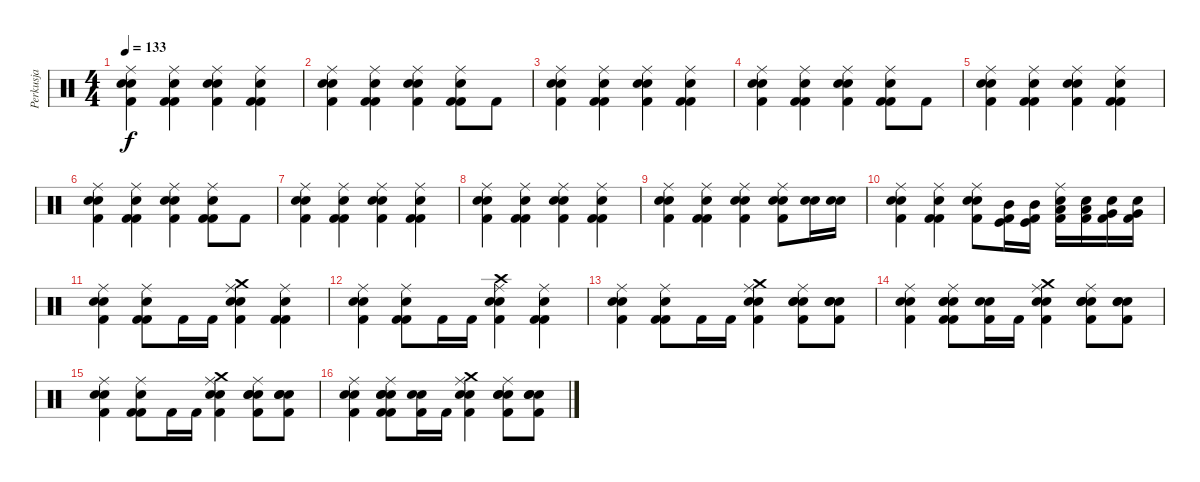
\track ("Perkusja" "Perkusja") {instrument percussion}
\staff {score}
\articulation defaults
\ts (4 4)
\tempo 133
\clef neutral
\ks c
("Ride (middle)" "Kick (hit) 2" "Electric Snare (hit)" "Electric Snare (hit)").4{dy f} ("Ride (middle)" "Snare (hit) 2" "Kick (hit) 2" "Kick (hit) 2").4 ("Ride (middle)" "Kick (hit) 2" "Electric Snare (hit)" "Electric Snare (hit)").4 ("Ride (middle)" "Snare (hit) 2" "Kick (hit) 2" "Kick (hit) 2").4 |
("Ride (middle)" "Kick (hit) 2" "Electric Snare (hit)" "Electric Snare (hit)").4 ("Ride (middle)" "Snare (hit) 2" "Kick (hit) 2" "Kick (hit) 2").4 ("Ride (middle)" "Kick (hit) 2" "Electric Snare (hit)" "Electric Snare (hit)").4 ("Ride (middle)" "Snare (hit) 2" "Kick (hit) 2" "Kick (hit) 2").8 "Kick (hit) 2".8 |
("Ride (middle)" "Kick (hit) 2" "Electric Snare (hit)" "Electric Snare (hit)").4 ("Ride (middle)" "Snare (hit) 2" "Kick (hit) 2" "Kick (hit) 2").4 ("Ride (middle)" "Kick (hit) 2" "Electric Snare (hit)" "Electric Snare (hit)").4 ("Ride (middle)" "Snare (hit) 2" "Kick (hit) 2" "Kick (hit) 2").4 |
("Ride (middle)" "Kick (hit) 2" "Electric Snare (hit)" "Electric Snare (hit)").4 ("Ride (middle)" "Snare (hit) 2" "Kick (hit) 2" "Kick (hit) 2").4 ("Ride (middle)" "Kick (hit) 2" "Electric Snare (hit)" "Electric Snare (hit)").4 ("Ride (middle)" "Snare (hit) 2" "Kick (hit) 2" "Kick (hit) 2").8 "Kick (hit) 2".8 |
("Ride (middle)" "Kick (hit) 2" "Electric Snare (hit)" "Electric Snare (hit)").4 ("Ride (middle)" "Snare (hit) 2" "Kick (hit) 2" "Kick (hit) 2").4 ("Ride (middle)" "Kick (hit) 2" "Electric Snare (hit)" "Electric Snare (hit)").4 ("Ride (middle)" "Snare (hit) 2" "Kick (hit) 2" "Kick (hit) 2").4 |
("Ride (middle)" "Kick (hit) 2" "Electric Snare (hit)" "Electric Snare (hit)").4 ("Ride (middle)" "Snare (hit) 2" "Kick (hit) 2" "Kick (hit) 2").4 ("Ride (middle)" "Kick (hit) 2" "Electric Snare (hit)" "Electric Snare (hit)").4 ("Ride (middle)" "Snare (hit) 2" "Kick (hit) 2" "Kick (hit) 2").8 "Kick (hit) 2".8 |
("Ride (middle)" "Kick (hit) 2" "Electric Snare (hit)" "Electric Snare (hit)").4 ("Ride (middle)" "Snare (hit) 2" "Kick (hit) 2" "Kick (hit) 2").4 ("Ride (middle)" "Kick (hit) 2" "Electric Snare (hit)" "Electric Snare (hit)").4 ("Ride (middle)" "Snare (hit) 2" "Kick (hit) 2" "Kick (hit) 2").4 |
("Ride (middle)" "Kick (hit) 2" "Electric Snare (hit)" "Electric Snare (hit)").4 ("Ride (middle)" "Snare (hit) 2" "Kick (hit) 2" "Kick (hit) 2").4 ("Ride (middle)" "Kick (hit) 2" "Electric Snare (hit)" "Electric Snare (hit)").4 ("Ride (middle)" "Snare (hit) 2" "Kick (hit) 2" "Kick (hit) 2").4 |
("Ride (middle)" "Kick (hit) 2" "Electric Snare (hit)" "Electric Snare (hit)").4 ("Ride (middle)" "Snare (hit) 2" "Kick (hit) 2" "Kick (hit) 2").4 ("Ride (middle)" "Kick (hit) 2" "Electric Snare (hit)" "Electric Snare (hit)").4 ("Ride (middle)" "Snare (hit) 2" "Kick (hit) 2" "Electric Snare (hit)").8 ("Electric Snare (hit)" "Electric Snare (hit)").16 ("Electric Snare (hit)" "Electric Snare (hit)").16 |
("Ride (middle)" "Kick (hit) 2" "Electric Snare (hit)" "Electric Snare (hit)").4 ("Ride (middle)" "Snare (hit) 2" "Kick (hit) 2" "Kick (hit) 2").4 ("Ride (middle)" "Kick (hit) 2" "Electric Snare (hit)" "Electric Snare (hit)").8 ("Mid Tom (hit)" "Kick (hit)" "Kick (hit) 2").16 ("Mid Tom (hit)" "Kick (hit)" "Kick (hit) 2").16 ("Ride (middle)" "Low Tom (hit)" "Electric Snare (hit)" "Kick (hit) 2").16 ("Low Tom (hit)" "Electric Snare (hit)" "Kick (hit) 2").16 ("Very Low Tom (hit)" "Electric Snare (hit)" "Kick (hit) 2").16 ("Very Low Tom (hit)" "Electric Snare (hit)" "Kick (hit) 2").16 |
("Ride (middle)" "Kick (hit) 2" "Electric Snare (hit)" "Electric Snare (hit)").4 ("Ride (middle)" "Snare (hit) 2" "Kick (hit) 2" "Kick (hit) 2").8 "Kick (hit) 2".16 "Kick (hit) 2".16 ("Ride (middle)" "Crash medium (hit)" "Kick (hit) 2" "Electric Snare (hit)" "Electric Snare (hit)").4 ("Ride (middle)" "Snare (hit) 2" "Kick (hit) 2" "Kick (hit) 2").4 |
("Ride (middle)" "Kick (hit) 2" "Electric Snare (hit)" "Electric Snare (hit)").4 ("Ride (middle)" "Snare (hit) 2" "Kick (hit) 2" "Kick (hit) 2").8 "Kick (hit) 2".16 "Kick (hit) 2".16 ("Ride (middle)" "Crash high (hit)" "Kick (hit) 2" "Electric Snare (hit)" "Electric Snare (hit)").4 ("Ride (middle)" "Snare (hit) 2" "Kick (hit) 2" "Kick (hit) 2").4 |
("Ride (middle)" "Kick (hit) 2" "Electric Snare (hit)" "Electric Snare (hit)").4 ("Ride (middle)" "Snare (hit) 2" "Kick (hit) 2" "Kick (hit) 2").8 "Kick (hit) 2".16 "Kick (hit) 2".16 ("Ride (middle)" "Crash medium (hit)" "Kick (hit) 2" "Electric Snare (hit)" "Electric Snare (hit)").4 ("Ride (middle)" "Snare (hit) 2" "Electric Snare (hit)" "Kick (hit) 2" "Electric Snare (hit)").8 ("Snare (hit) 2" "Electric Snare (hit)" "Kick (hit) 2" "Electric Snare (hit)").8 |
("Ride (middle)" "Kick (hit) 2" "Electric Snare (hit)" "Electric Snare (hit)").4 ("Ride (middle)" "Electric Snare (hit)" "Snare (hit) 2" "Kick (hit) 2" "Kick (hit) 2" "Electric Snare (hit)").8 ("Electric Snare (hit)" "Electric Snare (hit)" "Kick (hit) 2").16 "Kick (hit) 2".16 ("Ride (middle)" "Crash medium (hit)" "Kick (hit) 2" "Electric Snare (hit)" "Electric Snare (hit)").4 ("Ride (middle)" "Snare (hit) 2" "Electric Snare (hit)" "Kick (hit) 2" "Electric Snare (hit)").8 ("Snare (hit) 2" "Electric Snare (hit)" "Kick (hit) 2" "Electric Snare (hit)").8 |
("Ride (middle)" "Kick (hit) 2" "Electric Snare (hit)" "Electric Snare (hit)").4 ("Ride (middle)" "Snare (hit) 2" "Kick (hit) 2" "Kick (hit) 2").8 "Kick (hit) 2".16 "Kick (hit) 2".16 ("Ride (middle)" "Crash medium (hit)" "Kick (hit) 2" "Electric Snare (hit)" "Electric Snare (hit)").4 ("Ride (middle)" "Snare (hit) 2" "Electric Snare (hit)" "Kick (hit) 2" "Electric Snare (hit)").8 ("Snare (hit) 2" "Electric Snare (hit)" "Kick (hit) 2" "Electric Snare (hit)").8 |
("Ride (middle)" "Kick (hit) 2" "Electric Snare (hit)" "Electric Snare (hit)").4 ("Ride (middle)" "Electric Snare (hit)" "Snare (hit) 2" "Kick (hit) 2" "Kick (hit) 2" "Electric Snare (hit)").8 ("Electric Snare (hit)" "Electric Snare (hit)" "Kick (hit) 2").16 "Kick (hit) 2".16 ("Ride (middle)" "Crash medium (hit)" "Kick (hit) 2" "Electric Snare (hit)" "Electric Snare (hit)").4 ("Ride (middle)" "Snare (hit) 2" "Electric Snare (hit)" "Kick (hit) 2" "Electric Snare (hit)").8 ("Snare (hit) 2" "Electric Snare (hit)" "Kick (hit) 2" "Electric Snare (hit)").8
